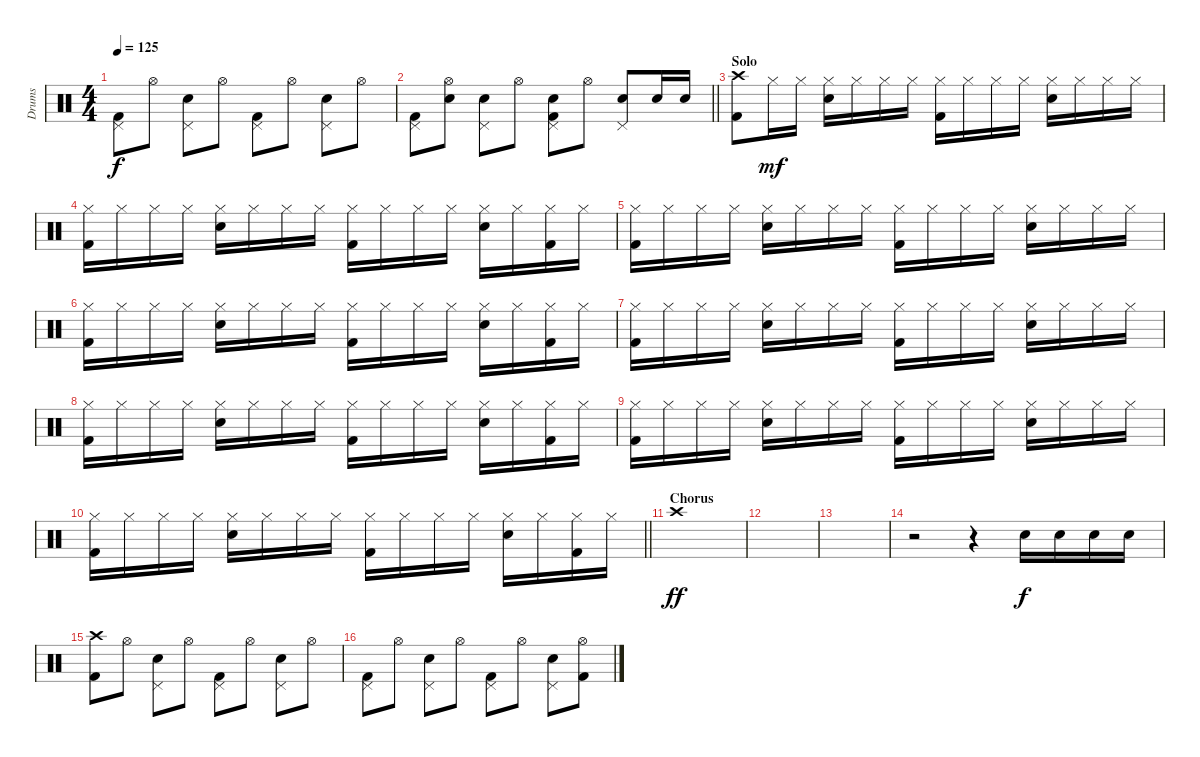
\track ("Drums" "Drums") {instrument percussion}
\staff {score}
\articulation defaults
\ts (4 4)
\tempo 125
\clef neutral
\ks c
("Pedal Hi-Hat (hit)" "Kick (hit) 2").8{dy f} "Hi-Hat (open)".8 ("Pedal Hi-Hat (hit)" "Electric Snare (hit)").8 "Hi-Hat (open)".8 ("Pedal Hi-Hat (hit)" "Kick (hit) 2").8 "Hi-Hat (open)".8 ("Pedal Hi-Hat (hit)" "Electric Snare (hit)").8 "Hi-Hat (open)".8 |
\barLineRight lightlight
("Pedal Hi-Hat (hit)" "Kick (hit) 2").8 ("Hi-Hat (open)" "Electric Snare (hit)").8 ("Pedal Hi-Hat (hit)" "Electric Snare (hit)").8 "Hi-Hat (open)".8 ("Pedal Hi-Hat (hit)" "Electric Snare (hit)" "Kick (hit) 2").8 "Hi-Hat (open)".8 ("Pedal Hi-Hat (hit)" "Electric Snare (hit)").8 "Electric Snare (hit)".16 "Electric Snare (hit)".16 |
\section ("" "Solo")
("Crash high (hit)" "Kick (hit) 2").8 "Hi-Hat (closed)".16{dy mf} "Hi-Hat (closed)".16 ("Hi-Hat (closed)" "Electric Snare (hit)").16 "Hi-Hat (closed)".16 "Hi-Hat (closed)".16 "Hi-Hat (closed)".16 ("Hi-Hat (closed)" "Kick (hit) 2").16 "Hi-Hat (closed)".16 "Hi-Hat (closed)".16 "Hi-Hat (closed)".16 ("Hi-Hat (closed)" "Electric Snare (hit)").16 "Hi-Hat (closed)".16 "Hi-Hat (closed)".16 "Hi-Hat (closed)".16 |
("Hi-Hat (closed)" "Kick (hit) 2").16 "Hi-Hat (closed)".16 "Hi-Hat (closed)".16 "Hi-Hat (closed)".16 ("Hi-Hat (closed)" "Electric Snare (hit)").16 "Hi-Hat (closed)".16 "Hi-Hat (closed)".16 "Hi-Hat (closed)".16 ("Hi-Hat (closed)" "Kick (hit) 2").16 "Hi-Hat (closed)".16 "Hi-Hat (closed)".16 "Hi-Hat (closed)".16 ("Hi-Hat (closed)" "Electric Snare (hit)").16 "Hi-Hat (closed)".16 ("Hi-Hat (closed)" "Kick (hit) 2").16 "Hi-Hat (closed)".16 |
("Hi-Hat (closed)" "Kick (hit) 2").16 "Hi-Hat (closed)".16 "Hi-Hat (closed)".16 "Hi-Hat (closed)".16 ("Hi-Hat (closed)" "Electric Snare (hit)").16 "Hi-Hat (closed)".16 "Hi-Hat (closed)".16 "Hi-Hat (closed)".16 ("Hi-Hat (closed)" "Kick (hit) 2").16 "Hi-Hat (closed)".16 "Hi-Hat (closed)".16 "Hi-Hat (closed)".16 ("Hi-Hat (closed)" "Electric Snare (hit)").16 "Hi-Hat (closed)".16 "Hi-Hat (closed)".16 "Hi-Hat (closed)".16 |
("Hi-Hat (closed)" "Kick (hit) 2").16 "Hi-Hat (closed)".16 "Hi-Hat (closed)".16 "Hi-Hat (closed)".16 ("Hi-Hat (closed)" "Electric Snare (hit)").16 "Hi-Hat (closed)".16 "Hi-Hat (closed)".16 "Hi-Hat (closed)".16 ("Hi-Hat (closed)" "Kick (hit) 2").16 "Hi-Hat (closed)".16 "Hi-Hat (closed)".16 "Hi-Hat (closed)".16 ("Hi-Hat (closed)" "Electric Snare (hit)").16 "Hi-Hat (closed)".16 ("Hi-Hat (closed)" "Kick (hit) 2").16 "Hi-Hat (closed)".16 |
("Hi-Hat (closed)" "Kick (hit) 2").16 "Hi-Hat (closed)".16 "Hi-Hat (closed)".16 "Hi-Hat (closed)".16 ("Hi-Hat (closed)" "Electric Snare (hit)").16 "Hi-Hat (closed)".16 "Hi-Hat (closed)".16 "Hi-Hat (closed)".16 ("Hi-Hat (closed)" "Kick (hit) 2").16 "Hi-Hat (closed)".16 "Hi-Hat (closed)".16 "Hi-Hat (closed)".16 ("Hi-Hat (closed)" "Electric Snare (hit)").16 "Hi-Hat (closed)".16 "Hi-Hat (closed)".16 "Hi-Hat (closed)".16 |
("Hi-Hat (closed)" "Kick (hit) 2").16 "Hi-Hat (closed)".16 "Hi-Hat (closed)".16 "Hi-Hat (closed)".16 ("Hi-Hat (closed)" "Electric Snare (hit)").16 "Hi-Hat (closed)".16 "Hi-Hat (closed)".16 "Hi-Hat (closed)".16 ("Hi-Hat (closed)" "Kick (hit) 2").16 "Hi-Hat (closed)".16 "Hi-Hat (closed)".16 "Hi-Hat (closed)".16 ("Hi-Hat (closed)" "Electric Snare (hit)").16 "Hi-Hat (closed)".16 ("Hi-Hat (closed)" "Kick (hit) 2").16 "Hi-Hat (closed)".16 |
("Hi-Hat (closed)" "Kick (hit) 2").16 "Hi-Hat (closed)".16 "Hi-Hat (closed)".16 "Hi-Hat (closed)".16 ("Hi-Hat (closed)" "Electric Snare (hit)").16 "Hi-Hat (closed)".16 "Hi-Hat (closed)".16 "Hi-Hat (closed)".16 ("Hi-Hat (closed)" "Kick (hit) 2").16 "Hi-Hat (closed)".16 "Hi-Hat (closed)".16 "Hi-Hat (closed)".16 ("Hi-Hat (closed)" "Electric Snare (hit)").16 "Hi-Hat (closed)".16 "Hi-Hat (closed)".16 "Hi-Hat (closed)".16 |
\barLineRight lightlight
("Hi-Hat (closed)" "Kick (hit) 2").16 "Hi-Hat (closed)".16 "Hi-Hat (closed)".16 "Hi-Hat (closed)".16 ("Hi-Hat (closed)" "Electric Snare (hit)").16 "Hi-Hat (closed)".16 "Hi-Hat (closed)".16 "Hi-Hat (closed)".16 ("Hi-Hat (closed)" "Kick (hit) 2").16 "Hi-Hat (closed)".16 "Hi-Hat (closed)".16 "Hi-Hat (closed)".16 ("Hi-Hat (closed)" "Electric Snare (hit)").16 "Hi-Hat (closed)".16 ("Hi-Hat (closed)" "Kick (hit) 2").16 "Hi-Hat (closed)".16 |
\section ("" "Chorus")
"Crash high (hit)".1{dy ff} |
|
|
r.2 r.4 "Electric Snare (hit)".16{dy f} "Electric Snare (hit)".16 "Electric Snare (hit)".16 "Electric Snare (hit)".16 |
("Crash high (hit)" "Kick (hit) 2").8 "Hi-Hat (open)".8 ("Pedal Hi-Hat (hit)" "Electric Snare (hit)").8 "Hi-Hat (open)".8 ("Pedal Hi-Hat (hit)" "Kick (hit) 2").8 "Hi-Hat (open)".8 ("Pedal Hi-Hat (hit)" "Electric Snare (hit)").8 "Hi-Hat (open)".8 |
("Pedal Hi-Hat (hit)" "Kick (hit) 2").8 "Hi-Hat (open)".8 ("Pedal Hi-Hat (hit)" "Electric Snare (hit)").8 "Hi-Hat (open)".8 ("Pedal Hi-Hat (hit)" "Kick (hit) 2").8 "Hi-Hat (open)".8 ("Pedal Hi-Hat (hit)" "Electric Snare (hit)").8 ("Hi-Hat (open)" "Kick (hit) 2").8
